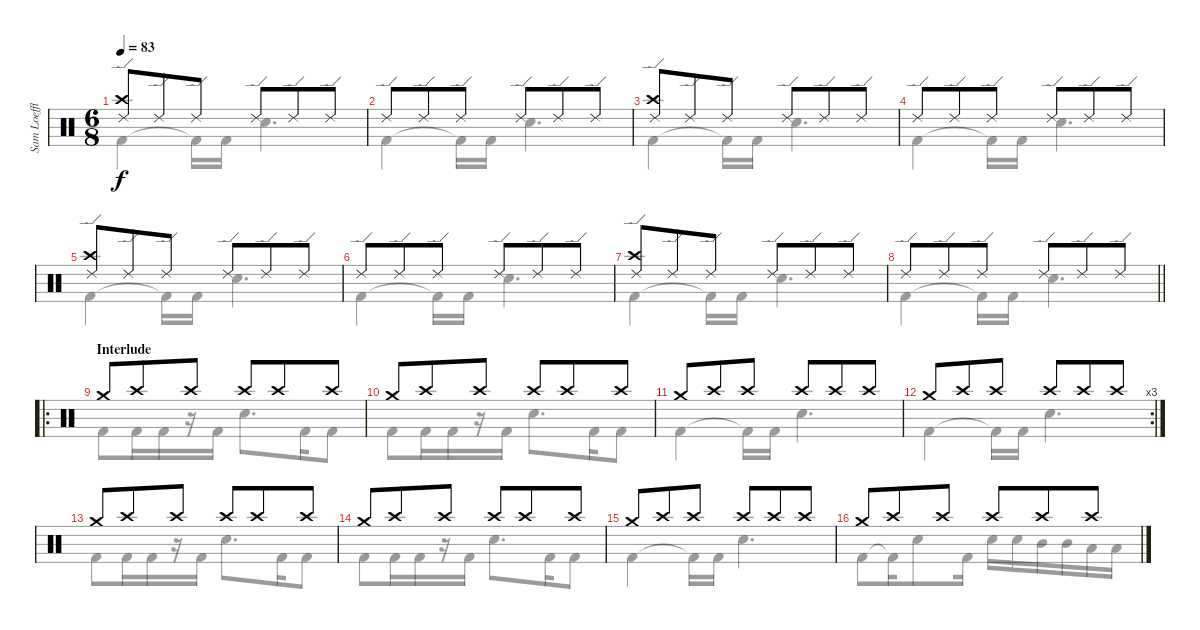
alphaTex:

\track ("Sam Loeffler" "Sam Loeffl") {instrument percussion}
\staff {score}
\articulation defaults
\voice
\ts (6 8)
\tempo 83
\clef neutral
\ks c
("Crash high (hit)" "Ride (edge) 2").8{dy f} "Ride (edge) 2".8 "Ride (edge) 2".8 "Ride (edge) 2".8 "Ride (edge) 2".8 "Ride (edge) 2".8 |
"Ride (edge) 2".8 "Ride (edge) 2".8 "Ride (edge) 2".8 "Ride (edge) 2".8 "Ride (edge) 2".8 "Ride (edge) 2".8 |
("Crash high (hit)" "Ride (edge) 2").8 "Ride (edge) 2".8 "Ride (edge) 2".8 "Ride (edge) 2".8 "Ride (edge) 2".8 "Ride (edge) 2".8 |
"Ride (edge) 2".8 "Ride (edge) 2".8 "Ride (edge) 2".8 "Ride (edge) 2".8 "Ride (edge) 2".8 "Ride (edge) 2".8 |
("Crash high (hit)" "Ride (edge) 2").8 "Ride (edge) 2".8 "Ride (edge) 2".8 "Ride (edge) 2".8 "Ride (edge) 2".8 "Ride (edge) 2".8 |
"Ride (edge) 2".8 "Ride (edge) 2".8 "Ride (edge) 2".8 "Ride (edge) 2".8 "Ride (edge) 2".8 "Ride (edge) 2".8 |
("Crash high (hit)" "Ride (edge) 2").8 "Ride (edge) 2".8 "Ride (edge) 2".8 "Ride (edge) 2".8 "Ride (edge) 2".8 "Ride (edge) 2".8 |
\barLineRight lightlight "Ride (edge) 2".8 "Ride (edge) 2".8 "Ride (edge) 2".8 "Ride (edge) 2".8 "Ride (edge) 2".8 "Ride (edge) 2".8
|
\ro
\section ("" "Interlude")
"Crash medium (hit)".8 "Crash high (hit)".8 "Crash high (hit)".8 "Crash high (hit)".8 "Crash high (hit)".8 "Crash high (hit)".8 |
"Crash medium (hit)".8 "Crash high (hit)".8 "Crash high (hit)".8 "Crash high (hit)".8 "Crash high (hit)".8 "Crash high (hit)".8 |
"Crash medium (hit)".8 "Crash high (hit)".8 "Crash high (hit)".8 "Crash high (hit)".8 "Crash high (hit)".8 "Crash high (hit)".8 |
\rc 3 "Crash medium (hit)".8 "Crash high (hit)".8 "Crash high (hit)".8 "Crash high (hit)".8 "Crash high (hit)".8 "Crash high (hit)".8
|
"Crash medium (hit)".8 "Crash high (hit)".8 "Crash high (hit)".8 "Crash high (hit)".8 "Crash high (hit)".8 "Crash high (hit)".8 |
"Crash medium (hit)".8 "Crash high (hit)".8 "Crash high (hit)".8 "Crash high (hit)".8 "Crash high (hit)".8 "Crash high (hit)".8 |
"Crash medium (hit)".8 "Crash high (hit)".8 "Crash high (hit)".8 "Crash high (hit)".8 "Crash high (hit)".8 "Crash high (hit)".8 |
"Crash medium (hit)".8 "Crash high (hit)".8 "Crash high (hit)".8 "Crash high (hit)".8 "Crash high (hit)".8 "Crash high (hit)".8
\voice
\clef neutral
\ottava regular
\simile none
\ks c "Kick (hit) 2".4{dy f} "Kick (hit) 2"{t}.16 "Kick (hit) 2".16 "Electric Snare (hit)".4{d}
|
"Kick (hit) 2".4 "Kick (hit) 2"{t}.16 "Kick (hit) 2".16 "Electric Snare (hit)".4{d} |
"Kick (hit) 2".4 "Kick (hit) 2"{t}.16 "Kick (hit) 2".16 "Electric Snare (hit)".4{d} |
"Kick (hit) 2".4 "Kick (hit) 2"{t}.16 "Kick (hit) 2".16 "Electric Snare (hit)".4{d} |
"Kick (hit) 2".4 "Kick (hit) 2"{t}.16 "Kick (hit) 2".16 "Electric Snare (hit)".4{d} |
"Kick (hit) 2".4 "Kick (hit) 2"{t}.16 "Kick (hit) 2".16 "Electric Snare (hit)".4{d} |
"Kick (hit) 2".4 "Kick (hit) 2"{t}.16 "Kick (hit) 2".16 "Electric Snare (hit)".4{d} |
\barLineRight lightlight "Kick (hit) 2".4 "Kick (hit) 2"{t}.16 "Kick (hit) 2".16 "Electric Snare (hit)".4{d}
|
"Kick (hit) 2".8 "Kick (hit) 2".16 "Kick (hit) 2".16 r.16 "Kick (hit) 2".16 "Electric Snare (hit)".8{d} "Kick (hit) 2".16 "Kick (hit) 2".8 |
"Kick (hit) 2".8 "Kick (hit) 2".16 "Kick (hit) 2".16 r.16 "Kick (hit) 2".16 "Electric Snare (hit)".8{d} "Kick (hit) 2".16 "Kick (hit) 2".8 |
"Kick (hit) 2".4 "Kick (hit) 2"{t}.16 "Kick (hit) 2".16 "Electric Snare (hit)".4{d} |
"Kick (hit) 2".4 "Kick (hit) 2"{t}.16 "Kick (hit) 2".16 "Electric Snare (hit)".4{d} |
"Kick (hit) 2".8 "Kick (hit) 2".16 "Kick (hit) 2".16 r.16 "Kick (hit) 2".16 "Electric Snare (hit)".8{d} "Kick (hit) 2".16 "Kick (hit) 2".8 |
"Kick (hit) 2".8 "Kick (hit) 2".16 "Kick (hit) 2".16 r.16 "Kick (hit) 2".16 "Electric Snare (hit)".8{d} "Kick (hit) 2".16 "Kick (hit) 2".8 |
"Kick (hit) 2".4 "Kick (hit) 2"{t}.16 "Kick (hit) 2".16 "Electric Snare (hit)".4{d} |
"Kick (hit) 2".8 "Kick (hit) 2"{t}.16 "Electric Snare (hit)".8 "Kick (hit) 2".16 "Electric Snare (hit)".16 "Electric Snare (hit)".16 "Mid Tom (hit)".16 "Mid Tom (hit)".16 "Low Tom (hit)".16 "Low Tom (hit)".16
